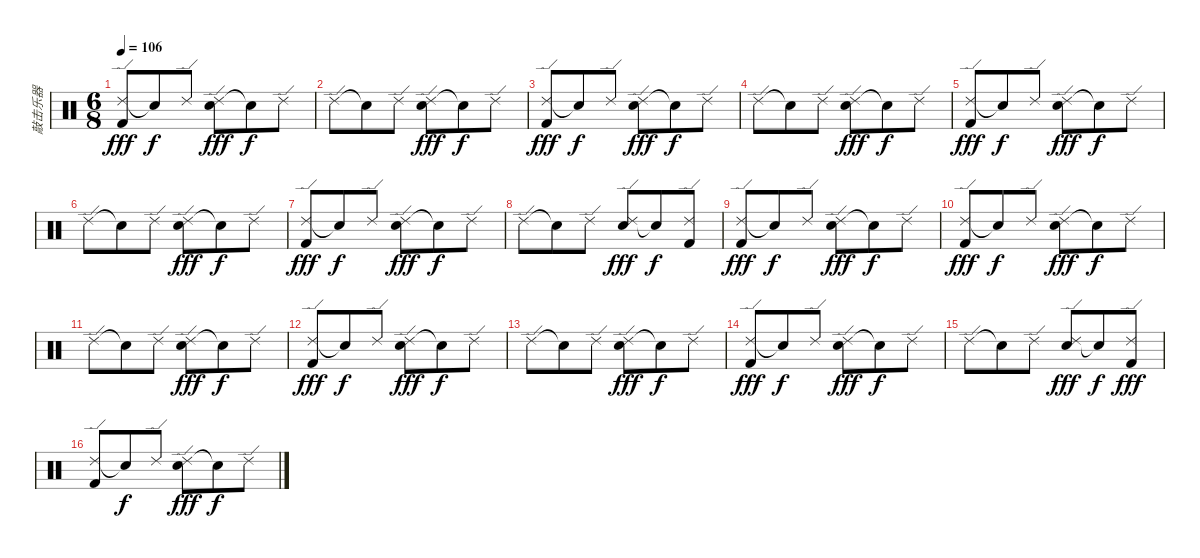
\track ("敲击乐器" "敲击乐器") {instrument percussion}
\staff {score}
\articulation defaults
\ts (6 8)
\tempo 106
\clef neutral
\ks c
("Ride (edge) 2" "Kick (hit) 2").8{dy fff} "Snare (hit)"{t}.8{dy f} "Ride (edge) 2".8 ("Ride (edge) 2" "Snare (hit) 2").8{dy fff} "Snare (hit)"{t}.8{dy f} "Ride (edge) 2".8 |
"Ride (edge) 2".8 "Snare (hit)"{t}.8 "Ride (edge) 2".8 ("Ride (edge) 2" "Snare (hit) 2").8{dy fff} "Snare (hit)"{t}.8{dy f} "Ride (edge) 2".8 |
("Ride (edge) 2" "Kick (hit) 2").8{dy fff} "Snare (hit)"{t}.8{dy f} "Ride (edge) 2".8 ("Ride (edge) 2" "Snare (hit) 2").8{dy fff} "Snare (hit)"{t}.8{dy f} "Ride (edge) 2".8 |
"Ride (edge) 2".8 "Snare (hit)"{t}.8 "Ride (edge) 2".8 ("Ride (edge) 2" "Snare (hit) 2").8{dy fff} "Snare (hit)"{t}.8{dy f} "Ride (edge) 2".8 |
("Ride (edge) 2" "Kick (hit) 2").8{dy fff} "Snare (hit)"{t}.8{dy f} "Ride (edge) 2".8 ("Ride (edge) 2" "Snare (hit) 2").8{dy fff} "Snare (hit)"{t}.8{dy f} "Ride (edge) 2".8 |
"Ride (edge) 2".8 "Snare (hit)"{t}.8 "Ride (edge) 2".8 ("Ride (edge) 2" "Snare (hit) 2").8{dy fff} "Snare (hit)"{t}.8{dy f} "Ride (edge) 2".8 |
("Ride (edge) 2" "Kick (hit) 2").8{dy fff} "Snare (hit)"{t}.8{dy f} "Ride (edge) 2".8 ("Ride (edge) 2" "Snare (hit) 2").8{dy fff} "Snare (hit)"{t}.8{dy f} "Ride (edge) 2".8 |
"Ride (edge) 2".8 "Snare (hit)"{t}.8 "Ride (edge) 2".8 ("Ride (edge) 2" "Snare (hit) 2").8{dy fff} "Snare (hit)"{t}.8{dy f} ("Ride (edge) 2" "Kick (hit) 2").8 |
("Ride (edge) 2" "Kick (hit) 2").8{dy fff} "Snare (hit)"{t}.8{dy f} "Ride (edge) 2".8 ("Ride (edge) 2" "Snare (hit) 2").8{dy fff} "Snare (hit)"{t}.8{dy f} "Ride (edge) 2".8 |
("Ride (edge) 2" "Kick (hit) 2").8{dy fff} "Snare (hit)"{t}.8{dy f} "Ride (edge) 2".8 ("Ride (edge) 2" "Snare (hit) 2").8{dy fff} "Snare (hit)"{t}.8{dy f} "Ride (edge) 2".8 |
"Ride (edge) 2".8 "Snare (hit)"{t}.8 "Ride (edge) 2".8 ("Ride (edge) 2" "Snare (hit) 2").8{dy fff} "Snare (hit)"{t}.8{dy f} "Ride (edge) 2".8 |
("Ride (edge) 2" "Kick (hit) 2").8{dy fff} "Snare (hit)"{t}.8{dy f} "Ride (edge) 2".8 ("Ride (edge) 2" "Snare (hit) 2").8{dy fff} "Snare (hit)"{t}.8{dy f} "Ride (edge) 2".8 |
"Ride (edge) 2".8 "Snare (hit)"{t}.8 "Ride (edge) 2".8 ("Ride (edge) 2" "Snare (hit) 2").8{dy fff} "Snare (hit)"{t}.8{dy f} "Ride (edge) 2".8 |
("Ride (edge) 2" "Kick (hit) 2").8{dy fff} "Snare (hit)"{t}.8{dy f} "Ride (edge) 2".8 ("Ride (edge) 2" "Snare (hit) 2").8{dy fff} "Snare (hit)"{t}.8{dy f} "Ride (edge) 2".8 |
"Ride (edge) 2".8 "Snare (hit)"{t}.8 "Ride (edge) 2".8 ("Ride (edge) 2" "Snare (hit) 2").8{dy fff} "Snare (hit)"{t}.8{dy f} ("Ride (edge) 2" "Kick (hit) 2").8{dy fff} |
("Ride (edge) 2" "Kick (hit) 2").8 "Snare (hit)"{t}.8{dy f} "Ride (edge) 2".8 ("Ride (edge) 2" "Snare (hit) 2").8{dy fff} "Snare (hit)"{t}.8{dy f} "Ride (edge) 2".8
